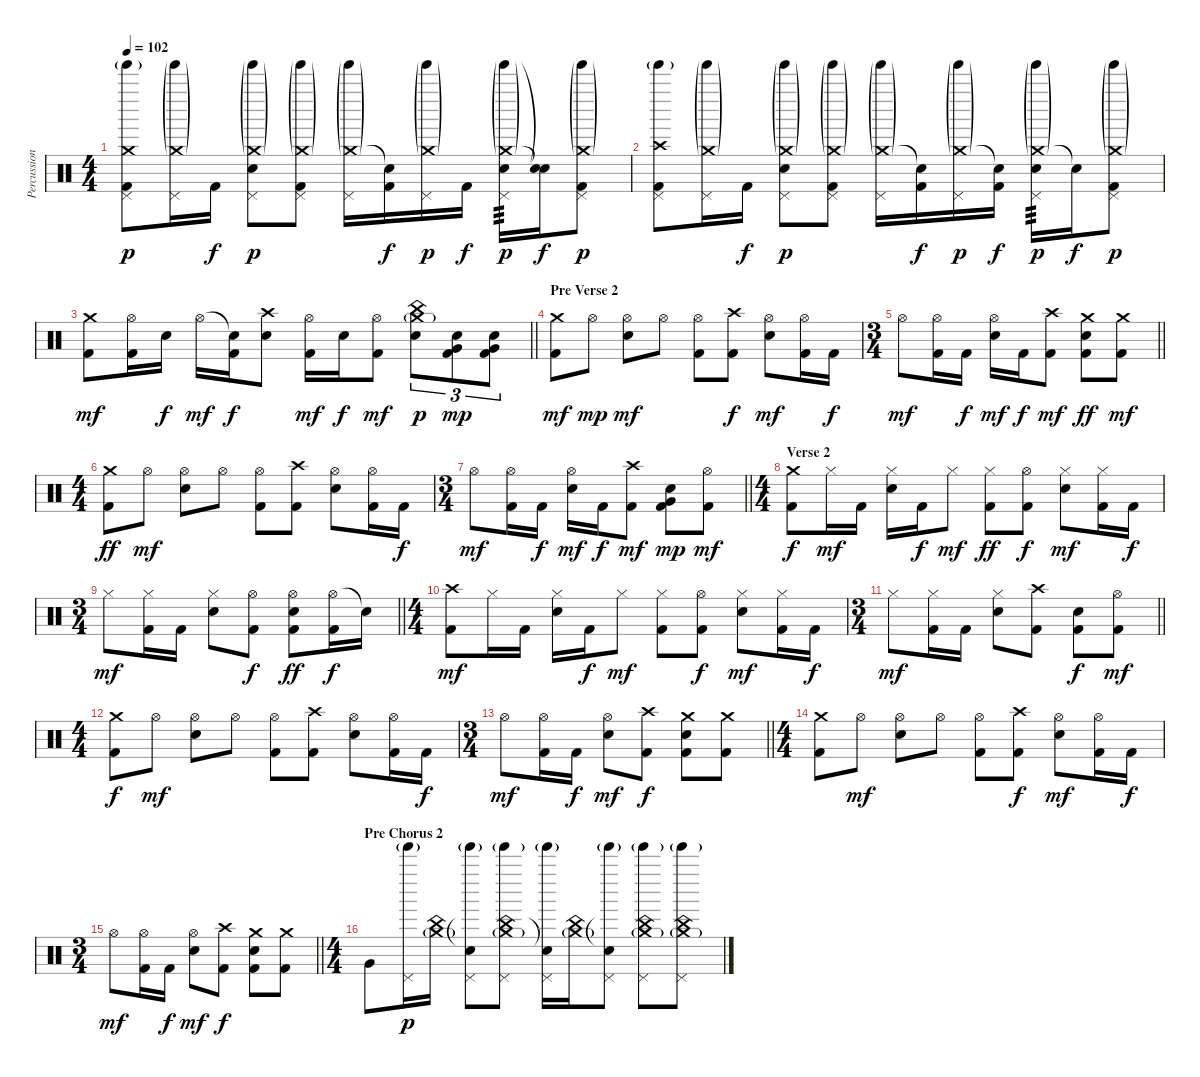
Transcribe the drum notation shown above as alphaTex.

\track ("Percussions" "Percussion") {instrument percussion}
\staff {score}
\articulation defaults
\ts (4 4)
\tempo 102
\clef neutral
\ks c
("Crash medium (hit)" "Tinkle Bell (hit)"{g} "Pedal Hi-Hat (hit)" "Kick (hit) 2").8{dy p} ("Crash medium (hit)"{g} "Tinkle Bell (hit)"{g} "Pedal Hi-Hat (hit)").16 "Kick (hit) 2".16{dy f} ("Crash medium (hit)"{g} "Tinkle Bell (hit)"{g} "Pedal Hi-Hat (hit)" "Electric Snare (hit)").8{dy p} ("Crash medium (hit)"{g} "Tinkle Bell (hit)"{g} "Pedal Hi-Hat (hit)" "Kick (hit) 2").8 ("Crash medium (hit)"{g} "Tinkle Bell (hit)"{g} "Pedal Hi-Hat (hit)").16 ("Snare (hit)"{t} "Kick (hit) 2").16{dy f} ("Crash medium (hit)"{g} "Tinkle Bell (hit)"{g} "Pedal Hi-Hat (hit)").16{dy p} "Kick (hit) 2".16{dy f} ("Crash medium (hit)"{g} "Tinkle Bell (hit)"{g} "Pedal Hi-Hat (hit)" "Electric Snare (hit)").16{tp 3 dy p} ("Snare (hit)"{t} "Snare (hit)"{t}).16{dy f} ("Crash medium (hit)"{g} "Tinkle Bell (hit)"{g} "Pedal Hi-Hat (hit)" "Kick (hit) 2").8{dy p} |
("Crash high (hit)" "Tinkle Bell (hit)"{g} "Pedal Hi-Hat (hit)" "Kick (hit) 2").8 ("Crash medium (hit)"{g} "Tinkle Bell (hit)"{g} "Pedal Hi-Hat (hit)").16 "Kick (hit) 2".16{dy f} ("Crash medium (hit)"{g} "Tinkle Bell (hit)"{g} "Pedal Hi-Hat (hit)" "Electric Snare (hit)").8{dy p} ("Crash medium (hit)"{g} "Tinkle Bell (hit)"{g} "Pedal Hi-Hat (hit)" "Kick (hit) 2").8 ("Crash medium (hit)"{g} "Tinkle Bell (hit)"{g} "Pedal Hi-Hat (hit)").16 ("Snare (hit)"{t} "Kick (hit) 2").16{dy f} ("Crash medium (hit)"{g} "Tinkle Bell (hit)"{g} "Pedal Hi-Hat (hit)").16{dy p} ("Snare (hit)"{t} "Kick (hit) 2").16{dy f} ("Crash medium (hit)"{g} "Tinkle Bell (hit)"{g} "Pedal Hi-Hat (hit)" "Electric Snare (hit)").16{tp 3 dy p} "Snare (hit)"{t}.16{dy f} ("Crash medium (hit)"{g} "Tinkle Bell (hit)"{g} "Pedal Hi-Hat (hit)" "Kick (hit) 2").8{dy p} |
\barLineRight lightlight
("Crash medium (hit)" "Kick (hit) 2").8{dy mf} ("Hi-Hat (open)" "Kick (hit) 2").16 "Electric Snare (hit)".16{dy f} "Hi-Hat (open)".16{dy mf} ("Snare (hit)"{t} "Kick (hit) 2").16{dy f} ("Crash high (hit)" "Electric Snare (hit)").8 ("Hi-Hat (open)" "Kick (hit) 2").16{dy mf} "Electric Snare (hit)".16{dy f} ("Hi-Hat (open)" "Kick (hit) 2").8{dy mf} ("China (hit)" "Crash medium (hit)"{g} "Electric Snare (hit)").8{tu (3 2) dy p} ("Very Low Tom (hit)" "Electric Snare (hit)" "Kick (hit) 2").8{tu (3 2) dy mp} ("Very Low Tom (hit)" "Electric Snare (hit)" "Kick (hit) 2").8{tu (3 2)} |
\section ("" "Pre Verse 2")
("Crash medium (hit)" "Kick (hit) 2").8{dy mf} "Hi-Hat (open)".8{dy mp} ("Hi-Hat (open)" "Electric Snare (hit)").8{dy mf} "Hi-Hat (open)".8 ("Hi-Hat (open)" "Kick (hit) 2").8 ("Crash high (hit)" "Kick (hit) 2").8{dy f} ("Hi-Hat (open)" "Electric Snare (hit)").8{dy mf} ("Hi-Hat (open)" "Kick (hit) 2").16 "Kick (hit) 2".16{dy f} |
\ts (3 4)
\barLineRight lightlight "Hi-Hat (open)".8{dy mf}
("Hi-Hat (open)" "Kick (hit) 2").16 "Kick (hit) 2".16{dy f} ("Hi-Hat (open)" "Electric Snare (hit)").16{dy mf} "Kick (hit) 2".16{dy f} ("Crash high (hit)" "Kick (hit) 2").8{dy mf} ("Crash medium (hit)" "Electric Snare (hit)" "Kick (hit) 2").8{dy ff} ("Crash medium (hit)" "Kick (hit) 2").8{dy mf} |
\ts (4 4)
("Crash medium (hit)" "Kick (hit) 2").8{dy ff} "Hi-Hat (open)".8{dy mf} ("Hi-Hat (open)" "Electric Snare (hit)").8 "Hi-Hat (open)".8 ("Hi-Hat (open)" "Kick (hit) 2").8 ("Crash high (hit)" "Kick (hit) 2").8 ("Hi-Hat (open)" "Electric Snare (hit)").8 ("Hi-Hat (open)" "Kick (hit) 2").16 "Kick (hit) 2".16{dy f} |
\ts (3 4)
\barLineRight lightlight "Hi-Hat (open)".8{dy mf}
("Hi-Hat (open)" "Kick (hit) 2").16 "Kick (hit) 2".16{dy f} ("Hi-Hat (open)" "Electric Snare (hit)").16{dy mf} "Kick (hit) 2".16{dy f} ("Crash high (hit)" "Kick (hit) 2").8{dy mf} ("Very Low Tom (hit)" "Electric Snare (hit)" "Kick (hit) 2").8{dy mp} ("Hi-Hat (open)" "Kick (hit) 2").8{dy mf} |
\ts (4 4)
\section ("" "Verse 2")
("Crash medium (hit)" "Kick (hit) 2").8{dy f} "Hi-Hat (closed)".16{dy mf} "Kick (hit) 2".16 ("Hi-Hat (closed)" "Electric Snare (hit)").16 "Kick (hit) 2".16{dy f} "Hi-Hat (closed)".8{dy mf} ("Hi-Hat (closed)" "Kick (hit) 2").8{dy ff} ("Hi-Hat (open)" "Kick (hit) 2").8{dy f} ("Hi-Hat (closed)" "Electric Snare (hit)").8{dy mf} ("Hi-Hat (closed)" "Kick (hit) 2").16 "Kick (hit) 2".16{dy f} |
\ts (3 4)
\barLineRight lightlight "Hi-Hat (closed)".8{dy mf}
("Hi-Hat (closed)" "Kick (hit) 2").16 "Kick (hit) 2".16 ("Hi-Hat (closed)" "Electric Snare (hit)").8 ("Hi-Hat (open)" "Kick (hit) 2").8{dy f} ("Hi-Hat (open)" "Electric Snare (hit)" "Kick (hit) 2").8{dy ff} ("Hi-Hat (open)" "Kick (hit) 2").16{dy f} "Snare (hit)"{t}.16 |
\ts (4 4)
("Crash high (hit)" "Kick (hit) 2").8{dy mf} "Hi-Hat (closed)".16 "Kick (hit) 2".16 ("Hi-Hat (closed)" "Electric Snare (hit)").16 "Kick (hit) 2".16{dy f} "Hi-Hat (closed)".8{dy mf} ("Hi-Hat (closed)" "Kick (hit) 2").8 ("Hi-Hat (open)" "Kick (hit) 2").8{dy f} ("Hi-Hat (closed)" "Electric Snare (hit)").8{dy mf} ("Hi-Hat (closed)" "Kick (hit) 2").16 "Kick (hit) 2".16{dy f} |
\ts (3 4)
\barLineRight lightlight "Hi-Hat (closed)".8{dy mf}
("Hi-Hat (closed)" "Kick (hit) 2").16 "Kick (hit) 2".16 ("Hi-Hat (closed)" "Electric Snare (hit)").8 ("Crash high (hit)" "Kick (hit) 2").8 ("Electric Snare (hit)" "Kick (hit) 2").8{dy f} ("Hi-Hat (open)" "Kick (hit) 2").8{dy mf} |
\ts (4 4)
("Crash medium (hit)" "Kick (hit) 2").8{dy f} "Hi-Hat (open)".8{dy mf} ("Hi-Hat (open)" "Electric Snare (hit)").8 "Hi-Hat (open)".8 ("Hi-Hat (open)" "Kick (hit) 2").8 ("Crash high (hit)" "Kick (hit) 2").8 ("Hi-Hat (open)" "Electric Snare (hit)").8 ("Hi-Hat (open)" "Kick (hit) 2").16 "Kick (hit) 2".16{dy f} |
\ts (3 4)
\barLineRight lightlight "Hi-Hat (open)".8{dy mf}
("Hi-Hat (open)" "Kick (hit) 2").16 "Kick (hit) 2".16{dy f} ("Hi-Hat (open)" "Electric Snare (hit)").8{dy mf} ("Crash high (hit)" "Kick (hit) 2").8{dy f} ("Crash medium (hit)" "Electric Snare (hit)" "Kick (hit) 2").8 ("Crash medium (hit)" "Kick (hit) 2").8 |
\ts (4 4)
("Crash medium (hit)" "Kick (hit) 2").8 "Hi-Hat (open)".8{dy mf} ("Hi-Hat (open)" "Electric Snare (hit)").8 "Hi-Hat (open)".8 ("Hi-Hat (open)" "Kick (hit) 2").8 ("Crash high (hit)" "Kick (hit) 2").8{dy f} ("Hi-Hat (open)" "Electric Snare (hit)").8{dy mf} ("Hi-Hat (open)" "Kick (hit) 2").16 "Kick (hit) 2".16{dy f} |
\ts (3 4)
\barLineRight lightlight "Hi-Hat (open)".8{dy mf}
("Hi-Hat (open)" "Kick (hit) 2").16 "Kick (hit) 2".16{dy f} ("Hi-Hat (open)" "Electric Snare (hit)").8{dy mf} ("Crash high (hit)" "Kick (hit) 2").8{dy f} ("Crash medium (hit)" "Electric Snare (hit)" "Kick (hit) 2").8 ("Crash medium (hit)" "Kick (hit) 2").8 |
\ts (4 4)
\section ("" "Pre Chorus 2")
"Very Low Tom (hit)".8 ("Tinkle Bell (hit)"{g} "Pedal Hi-Hat (hit)").16{dy p} ("China (hit)" "Crash medium (hit)"{g}).16 ("Snare (hit)"{t} "Tinkle Bell (hit)"{g} "Pedal Hi-Hat (hit)").8 ("China (hit)" "Crash medium (hit)"{g} "Tinkle Bell (hit)"{g} "Pedal Hi-Hat (hit)").8 ("Snare (hit)"{t} "Tinkle Bell (hit)"{g} "Pedal Hi-Hat (hit)").16 ("China (hit)" "Crash medium (hit)"{g}).16 ("Snare (hit)"{t} "Tinkle Bell (hit)"{g} "Pedal Hi-Hat (hit)").8 ("China (hit)" "Crash medium (hit)"{g} "Tinkle Bell (hit)"{g} "Pedal Hi-Hat (hit)").8 ("China (hit)" "Crash medium (hit)"{g} "Tinkle Bell (hit)"{g} "Pedal Hi-Hat (hit)").8
